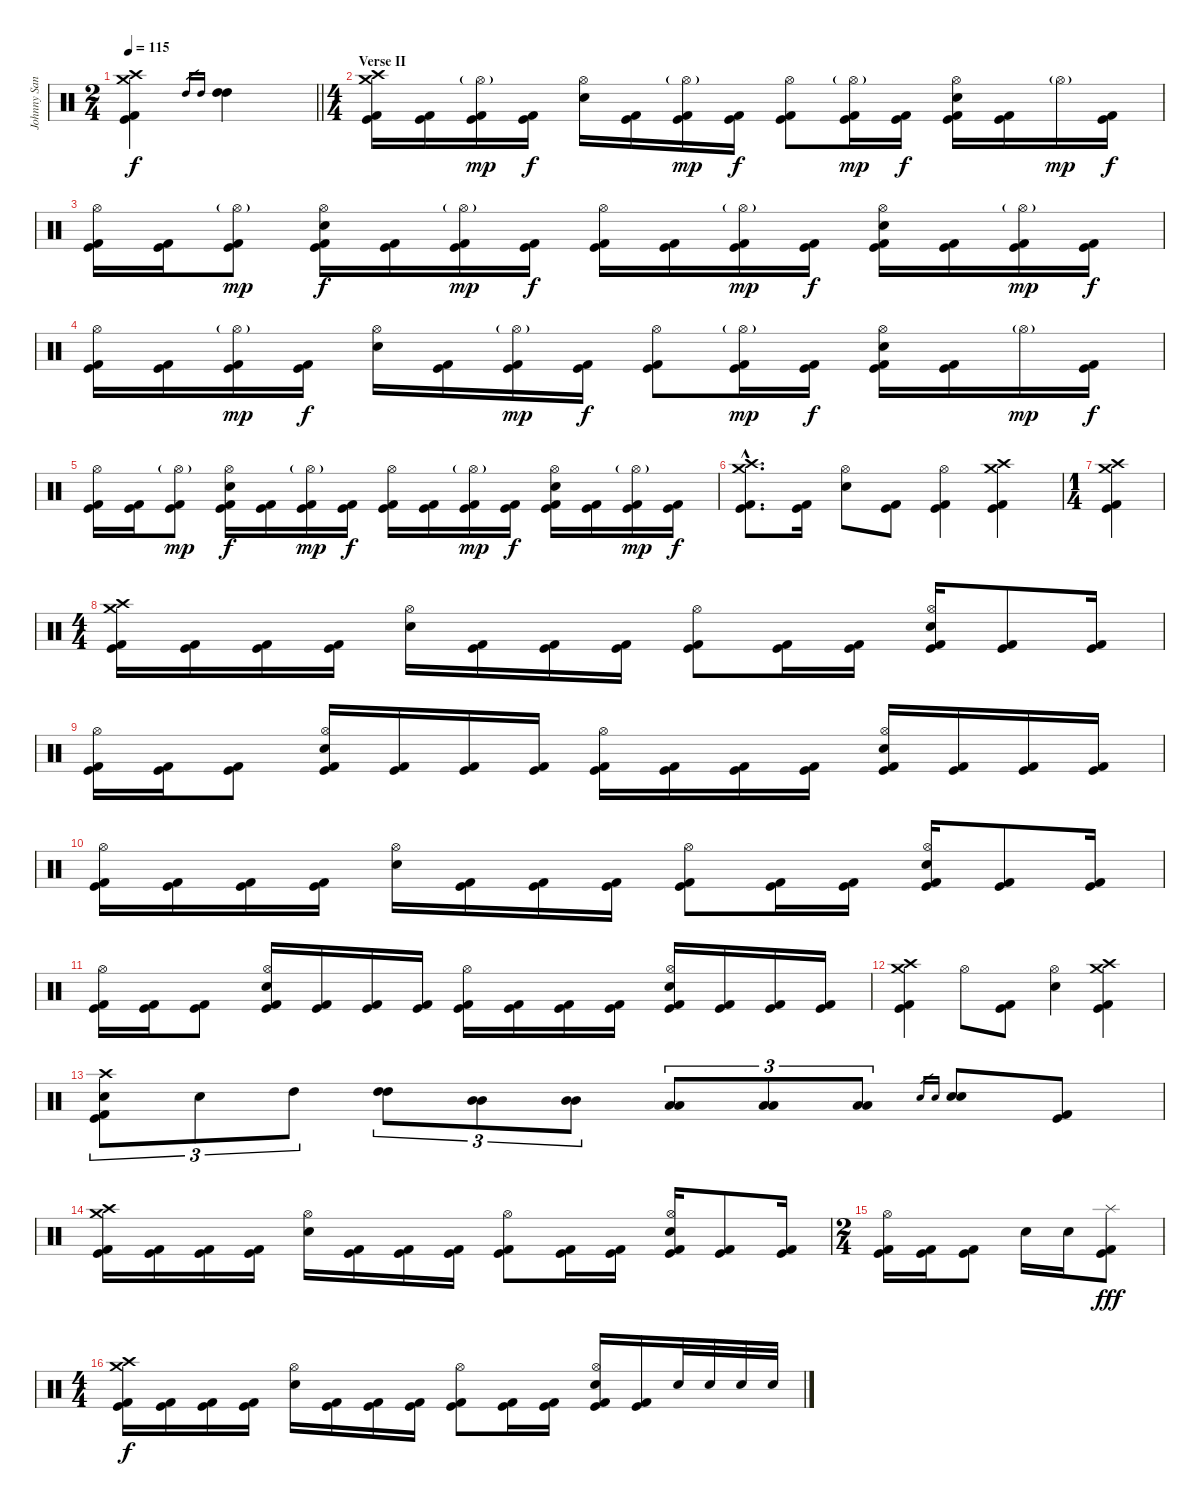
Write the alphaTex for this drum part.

\track ("Johnny Sandin" "Johnny San") {instrument percussion}
\staff {score}
\articulation defaults
\ts (2 4)
\tempo 115
\clef neutral
\barLineRight lightlight
\ks c
("Crash medium (hit)" "Crash high (hit)" "Kick (hit) 2" "Kick (hit)").4{dy f} "High Tom (hit)".16{gr} "High Tom (hit)".16{gr} ("High Tom (hit)" "High Tom (hit)").4 |
\ts (4 4)
\section ("" "Verse II")
("Crash medium (hit)" "Crash high (hit)" "Kick (hit) 2" "Kick (hit)").16 ("Kick (hit) 2" "Kick (hit)").16 ("Hi-Hat (open)"{g} "Kick (hit) 2" "Kick (hit)").16{dy mp} ("Kick (hit) 2" "Kick (hit)").16{dy f} ("Hi-Hat (open)" "Snare (hit) 2").16 ("Kick (hit) 2" "Kick (hit)").16 ("Hi-Hat (open)"{g} "Kick (hit) 2" "Kick (hit)").16{dy mp} ("Kick (hit) 2" "Kick (hit)").16{dy f} ("Hi-Hat (open)" "Kick (hit) 2" "Kick (hit)").8 ("Hi-Hat (open)"{g} "Kick (hit) 2" "Kick (hit)").16{dy mp} ("Kick (hit) 2" "Kick (hit)").16{dy f} ("Hi-Hat (open)" "Snare (hit) 2" "Kick (hit) 2" "Kick (hit)").16 ("Kick (hit) 2" "Kick (hit)").16 "Hi-Hat (open)"{g}.16{dy mp} ("Kick (hit) 2" "Kick (hit)").16{dy f} |
("Hi-Hat (open)" "Kick (hit) 2" "Kick (hit)").16 ("Kick (hit) 2" "Kick (hit)").16 ("Hi-Hat (open)"{g} "Kick (hit) 2" "Kick (hit)").8{dy mp} ("Hi-Hat (open)" "Snare (hit) 2" "Kick (hit) 2" "Kick (hit)").16{dy f} ("Kick (hit) 2" "Kick (hit)").16 ("Hi-Hat (open)"{g} "Kick (hit) 2" "Kick (hit)").16{dy mp} ("Kick (hit) 2" "Kick (hit)").16{dy f} ("Hi-Hat (open)" "Kick (hit) 2" "Kick (hit)").16 ("Kick (hit) 2" "Kick (hit)").16 ("Hi-Hat (open)"{g} "Kick (hit) 2" "Kick (hit)").16{dy mp} ("Kick (hit) 2" "Kick (hit)").16{dy f} ("Hi-Hat (open)" "Snare (hit) 2" "Kick (hit) 2" "Kick (hit)").16 ("Kick (hit) 2" "Kick (hit)").16 ("Hi-Hat (open)"{g} "Kick (hit) 2" "Kick (hit)").16{dy mp} ("Kick (hit) 2" "Kick (hit)").16{dy f} |
("Hi-Hat (open)" "Kick (hit) 2" "Kick (hit)").16 ("Kick (hit) 2" "Kick (hit)").16 ("Hi-Hat (open)"{g} "Kick (hit) 2" "Kick (hit)").16{dy mp} ("Kick (hit) 2" "Kick (hit)").16{dy f} ("Hi-Hat (open)" "Snare (hit) 2").16 ("Kick (hit) 2" "Kick (hit)").16 ("Hi-Hat (open)"{g} "Kick (hit) 2" "Kick (hit)").16{dy mp} ("Kick (hit) 2" "Kick (hit)").16{dy f} ("Hi-Hat (open)" "Kick (hit) 2" "Kick (hit)").8 ("Hi-Hat (open)"{g} "Kick (hit) 2" "Kick (hit)").16{dy mp} ("Kick (hit) 2" "Kick (hit)").16{dy f} ("Hi-Hat (open)" "Snare (hit) 2" "Kick (hit) 2" "Kick (hit)").16 ("Kick (hit) 2" "Kick (hit)").16 "Hi-Hat (open)"{g}.16{dy mp} ("Kick (hit) 2" "Kick (hit)").16{dy f} |
("Hi-Hat (open)" "Kick (hit) 2" "Kick (hit)").16 ("Kick (hit) 2" "Kick (hit)").16 ("Hi-Hat (open)"{g} "Kick (hit) 2" "Kick (hit)").8{dy mp} ("Hi-Hat (open)" "Snare (hit) 2" "Kick (hit) 2" "Kick (hit)").16{dy f} ("Kick (hit) 2" "Kick (hit)").16 ("Hi-Hat (open)"{g} "Kick (hit) 2" "Kick (hit)").16{dy mp} ("Kick (hit) 2" "Kick (hit)").16{dy f} ("Hi-Hat (open)" "Kick (hit) 2" "Kick (hit)").16 ("Kick (hit) 2" "Kick (hit)").16 ("Hi-Hat (open)"{g} "Kick (hit) 2" "Kick (hit)").16{dy mp} ("Kick (hit) 2" "Kick (hit)").16{dy f} ("Hi-Hat (open)" "Snare (hit) 2" "Kick (hit) 2" "Kick (hit)").16 ("Kick (hit) 2" "Kick (hit)").16 ("Hi-Hat (open)"{g} "Kick (hit) 2" "Kick (hit)").16{dy mp} ("Kick (hit) 2" "Kick (hit)").16{dy f} |
("Crash medium (hit)"{hac} "Crash high (hit)"{hac} "Kick (hit) 2"{hac} "Kick (hit)"{hac}).8{d} ("Kick (hit) 2" "Kick (hit)").16 ("Hi-Hat (open)" "Snare (hit) 2").8 ("Kick (hit) 2" "Kick (hit)").8 ("Hi-Hat (open)" "Kick (hit) 2" "Kick (hit)").4 ("Crash medium (hit)" "Crash high (hit)" "Kick (hit) 2" "Kick (hit)").4 |
\ts (1 4)
("Crash medium (hit)" "Crash high (hit)" "Kick (hit) 2" "Kick (hit)").4 |
\ts (4 4)
("Crash medium (hit)" "Crash high (hit)" "Kick (hit) 2" "Kick (hit)").16 ("Kick (hit) 2" "Kick (hit)").16 ("Kick (hit) 2" "Kick (hit)").16 ("Kick (hit) 2" "Kick (hit)").16 ("Hi-Hat (open)" "Snare (hit) 2").16 ("Kick (hit) 2" "Kick (hit)").16 ("Kick (hit) 2" "Kick (hit)").16 ("Kick (hit) 2" "Kick (hit)").16 ("Hi-Hat (open)" "Kick (hit) 2" "Kick (hit)").8 ("Kick (hit) 2" "Kick (hit)").16 ("Kick (hit) 2" "Kick (hit)").16 ("Hi-Hat (open)" "Snare (hit) 2" "Kick (hit) 2" "Kick (hit)").16 ("Kick (hit) 2" "Kick (hit)").8 ("Kick (hit) 2" "Kick (hit)").16 |
("Hi-Hat (open)" "Kick (hit) 2" "Kick (hit)").16 ("Kick (hit) 2" "Kick (hit)").16 ("Kick (hit) 2" "Kick (hit)").8 ("Hi-Hat (open)" "Snare (hit) 2" "Kick (hit) 2" "Kick (hit)").16 ("Kick (hit) 2" "Kick (hit)").16 ("Kick (hit) 2" "Kick (hit)").16 ("Kick (hit) 2" "Kick (hit)").16 ("Hi-Hat (open)" "Kick (hit) 2" "Kick (hit)").16 ("Kick (hit) 2" "Kick (hit)").16 ("Kick (hit) 2" "Kick (hit)").16 ("Kick (hit) 2" "Kick (hit)").16 ("Hi-Hat (open)" "Snare (hit) 2" "Kick (hit) 2" "Kick (hit)").16 ("Kick (hit) 2" "Kick (hit)").16 ("Kick (hit) 2" "Kick (hit)").16 ("Kick (hit) 2" "Kick (hit)").16 |
("Hi-Hat (open)" "Kick (hit) 2" "Kick (hit)").16 ("Kick (hit) 2" "Kick (hit)").16 ("Kick (hit) 2" "Kick (hit)").16 ("Kick (hit) 2" "Kick (hit)").16 ("Hi-Hat (open)" "Snare (hit) 2").16 ("Kick (hit) 2" "Kick (hit)").16 ("Kick (hit) 2" "Kick (hit)").16 ("Kick (hit) 2" "Kick (hit)").16 ("Hi-Hat (open)" "Kick (hit) 2" "Kick (hit)").8 ("Kick (hit) 2" "Kick (hit)").16 ("Kick (hit) 2" "Kick (hit)").16 ("Hi-Hat (open)" "Snare (hit) 2" "Kick (hit) 2" "Kick (hit)").16 ("Kick (hit) 2" "Kick (hit)").8 ("Kick (hit) 2" "Kick (hit)").16 |
("Hi-Hat (open)" "Kick (hit) 2" "Kick (hit)").16 ("Kick (hit) 2" "Kick (hit)").16 ("Kick (hit) 2" "Kick (hit)").8 ("Hi-Hat (open)" "Snare (hit) 2" "Kick (hit) 2" "Kick (hit)").16 ("Kick (hit) 2" "Kick (hit)").16 ("Kick (hit) 2" "Kick (hit)").16 ("Kick (hit) 2" "Kick (hit)").16 ("Hi-Hat (open)" "Kick (hit) 2" "Kick (hit)").16 ("Kick (hit) 2" "Kick (hit)").16 ("Kick (hit) 2" "Kick (hit)").16 ("Kick (hit) 2" "Kick (hit)").16 ("Hi-Hat (open)" "Snare (hit) 2" "Kick (hit) 2" "Kick (hit)").16 ("Kick (hit) 2" "Kick (hit)").16 ("Kick (hit) 2" "Kick (hit)").16 ("Kick (hit) 2" "Kick (hit)").16 |
("Crash medium (hit)" "Crash high (hit)" "Kick (hit) 2" "Kick (hit)").4 "Hi-Hat (open)".8 ("Kick (hit) 2" "Kick (hit)").8 ("Hi-Hat (open)" "Snare (hit) 2").4 ("Crash medium (hit)" "Crash high (hit)" "Kick (hit) 2" "Kick (hit)").4 |
("Crash high (hit)" "Snare (hit) 2" "Kick (hit) 2" "Kick (hit)").8{tu (3 2)} "Snare (hit) 2".8{tu (3 2)} "High Tom (hit)".8{tu (3 2)} ("High Tom (hit)" "High Tom (hit)").8{tu (3 2)} ("Mid Tom (hit)" "Mid Tom (hit)").8{tu (3 2)} ("Mid Tom (hit)" "Mid Tom (hit)").8{tu (3 2)} ("Low Tom (hit)" "Low Tom (hit)").8{tu (3 2)} ("Low Tom (hit)" "Low Tom (hit)").8{tu (3 2)} ("Low Tom (hit)" "Low Tom (hit)").8{tu (3 2)} "Snare (hit) 2".16{gr} "Snare (hit) 2".16{gr} ("Snare (hit) 2" "Snare (hit) 2").8 ("Kick (hit) 2" "Kick (hit)").8 |
("Crash medium (hit)" "Crash high (hit)" "Kick (hit) 2" "Kick (hit)").16 ("Kick (hit) 2" "Kick (hit)").16 ("Kick (hit) 2" "Kick (hit)").16 ("Kick (hit) 2" "Kick (hit)").16 ("Hi-Hat (open)" "Snare (hit) 2").16 ("Kick (hit) 2" "Kick (hit)").16 ("Kick (hit) 2" "Kick (hit)").16 ("Kick (hit) 2" "Kick (hit)").16 ("Hi-Hat (open)" "Kick (hit) 2" "Kick (hit)").8 ("Kick (hit) 2" "Kick (hit)").16 ("Kick (hit) 2" "Kick (hit)").16 ("Hi-Hat (open)" "Snare (hit) 2" "Kick (hit) 2" "Kick (hit)").16 ("Kick (hit) 2" "Kick (hit)").8 ("Kick (hit) 2" "Kick (hit)").16 |
\ts (2 4)
("Hi-Hat (open)" "Kick (hit) 2" "Kick (hit)").16 ("Kick (hit) 2" "Kick (hit)").16 ("Kick (hit) 2" "Kick (hit)").8 "Snare (hit) 2".16 "Snare (hit) 2".16 ("Splash (hit)" "Kick (hit) 2" "Kick (hit)").8{dy fff} |
\ts (4 4)
("Crash medium (hit)" "Crash high (hit)" "Kick (hit) 2" "Kick (hit)").16{dy f} ("Kick (hit) 2" "Kick (hit)").16 ("Kick (hit) 2" "Kick (hit)").16 ("Kick (hit) 2" "Kick (hit)").16 ("Hi-Hat (open)" "Snare (hit) 2").16 ("Kick (hit) 2" "Kick (hit)").16 ("Kick (hit) 2" "Kick (hit)").16 ("Kick (hit) 2" "Kick (hit)").16 ("Hi-Hat (open)" "Kick (hit) 2" "Kick (hit)").8 ("Kick (hit) 2" "Kick (hit)").16 ("Kick (hit) 2" "Kick (hit)").16 ("Hi-Hat (open)" "Snare (hit) 2" "Kick (hit) 2" "Kick (hit)").16 ("Kick (hit) 2" "Kick (hit)").16 "Snare (hit) 2".32 "Snare (hit) 2".32 "Snare (hit) 2".32 "Snare (hit) 2".32
